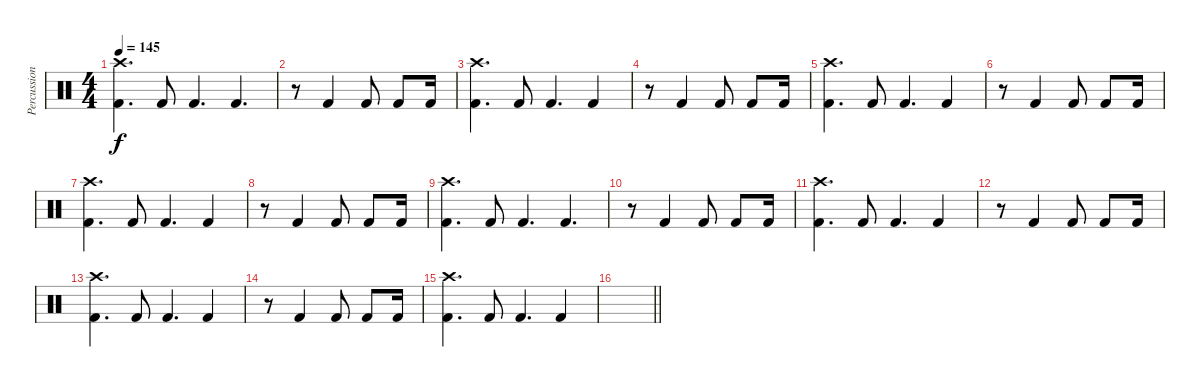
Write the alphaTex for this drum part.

\track ("Percussion" "Percussion") {instrument percussion}
\staff {score}
\articulation defaults
\ts (4 4)
\tempo 145
\clef neutral
\ks c
("Crash high (hit)" "Kick (hit) 2").4{d dy f} "Kick (hit) 2".8 "Kick (hit) 2".4{d} "Kick (hit) 2".4{d} |
r.8 "Kick (hit) 2".4 "Kick (hit) 2".8 "Kick (hit) 2".8 "Kick (hit) 2".16 |
("Crash high (hit)" "Kick (hit) 2").4{d} "Kick (hit) 2".8 "Kick (hit) 2".4{d} "Kick (hit) 2".4 |
r.8 "Kick (hit) 2".4 "Kick (hit) 2".8 "Kick (hit) 2".8 "Kick (hit) 2".16 |
("Crash high (hit)" "Kick (hit) 2").4{d} "Kick (hit) 2".8 "Kick (hit) 2".4{d} "Kick (hit) 2".4 |
r.8 "Kick (hit) 2".4 "Kick (hit) 2".8 "Kick (hit) 2".8 "Kick (hit) 2".16 |
("Crash high (hit)" "Kick (hit) 2").4{d} "Kick (hit) 2".8 "Kick (hit) 2".4{d} "Kick (hit) 2".4 |
r.8 "Kick (hit) 2".4 "Kick (hit) 2".8 "Kick (hit) 2".8 "Kick (hit) 2".16 |
("Crash high (hit)" "Kick (hit) 2").4{d} "Kick (hit) 2".8 "Kick (hit) 2".4{d} "Kick (hit) 2".4{d} |
r.8 "Kick (hit) 2".4 "Kick (hit) 2".8 "Kick (hit) 2".8 "Kick (hit) 2".16 |
("Crash high (hit)" "Kick (hit) 2").4{d} "Kick (hit) 2".8 "Kick (hit) 2".4{d} "Kick (hit) 2".4 |
r.8 "Kick (hit) 2".4 "Kick (hit) 2".8 "Kick (hit) 2".8 "Kick (hit) 2".16 |
("Crash high (hit)" "Kick (hit) 2").4{d} "Kick (hit) 2".8 "Kick (hit) 2".4{d} "Kick (hit) 2".4 |
r.8 "Kick (hit) 2".4 "Kick (hit) 2".8 "Kick (hit) 2".8 "Kick (hit) 2".16 |
("Crash high (hit)" "Kick (hit) 2").4{d} "Kick (hit) 2".8 "Kick (hit) 2".4{d} "Kick (hit) 2".4 |
\barLineRight lightlight
